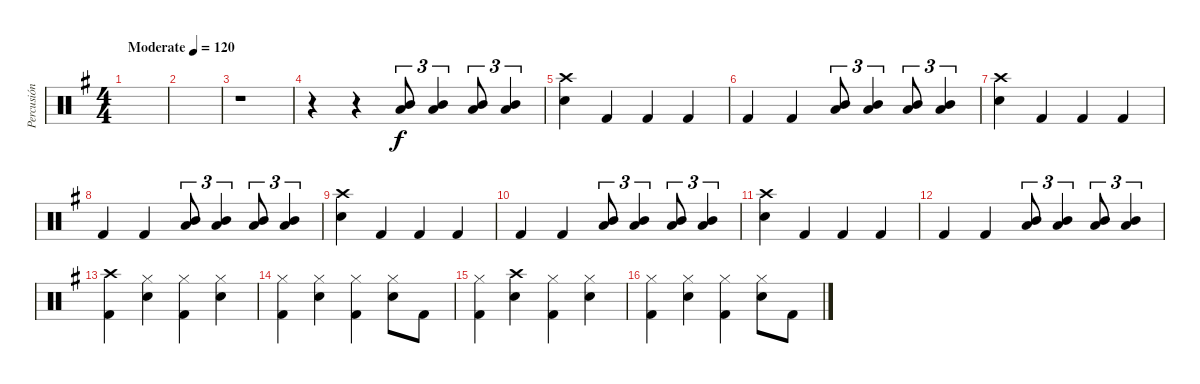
\track ("Percusión" "Percusión") {instrument percussion}
\staff {score}
\articulation defaults
\ts (4 4)
\tempo (120 "Moderate")
\clef neutral
\ks g
|
|
r.1 |
r.4 r.4 ("Low Tom (hit)" "Mid Tom (hit)").8{tu (3 2)} ("Low Tom (hit)" "Mid Tom (hit)").4{tu (3 2)} ("Low Tom (hit)" "Mid Tom (hit)").8{tu (3 2)} ("Low Tom (hit)" "Mid Tom (hit)").4{tu (3 2)} |
("Crash high (hit)" "Snare (hit) 2").4 "Kick (hit) 2".4 "Kick (hit) 2".4 "Kick (hit) 2".4 |
"Kick (hit) 2".4 "Kick (hit) 2".4 ("Low Tom (hit)" "Mid Tom (hit)").8{tu (3 2)} ("Low Tom (hit)" "Mid Tom (hit)").4{tu (3 2)} ("Low Tom (hit)" "Mid Tom (hit)").8{tu (3 2)} ("Low Tom (hit)" "Mid Tom (hit)").4{tu (3 2)} |
("Crash high (hit)" "Snare (hit) 2").4 "Kick (hit) 2".4 "Kick (hit) 2".4 "Kick (hit) 2".4 |
"Kick (hit) 2".4 "Kick (hit) 2".4 ("Low Tom (hit)" "Mid Tom (hit)").8{tu (3 2)} ("Low Tom (hit)" "Mid Tom (hit)").4{tu (3 2)} ("Low Tom (hit)" "Mid Tom (hit)").8{tu (3 2)} ("Low Tom (hit)" "Mid Tom (hit)").4{tu (3 2)} |
("Crash high (hit)" "Snare (hit) 2").4 "Kick (hit) 2".4 "Kick (hit) 2".4 "Kick (hit) 2".4 |
"Kick (hit) 2".4 "Kick (hit) 2".4 ("Low Tom (hit)" "Mid Tom (hit)").8{tu (3 2)} ("Low Tom (hit)" "Mid Tom (hit)").4{tu (3 2)} ("Low Tom (hit)" "Mid Tom (hit)").8{tu (3 2)} ("Low Tom (hit)" "Mid Tom (hit)").4{tu (3 2)} |
("Crash high (hit)" "Snare (hit) 2").4 "Kick (hit) 2".4 "Kick (hit) 2".4 "Kick (hit) 2".4 |
"Kick (hit) 2".4 "Kick (hit) 2".4 ("Low Tom (hit)" "Mid Tom (hit)").8{tu (3 2)} ("Low Tom (hit)" "Mid Tom (hit)").4{tu (3 2)} ("Low Tom (hit)" "Mid Tom (hit)").8{tu (3 2)} ("Low Tom (hit)" "Mid Tom (hit)").4{tu (3 2)} |
("Crash high (hit)" "Kick (hit) 2").4 ("Hi-Hat (closed)" "Snare (hit) 2").4 ("Hi-Hat (closed)" "Kick (hit) 2").4 ("Hi-Hat (closed)" "Snare (hit) 2").4 |
("Hi-Hat (closed)" "Kick (hit) 2").4 ("Hi-Hat (closed)" "Snare (hit) 2").4 ("Hi-Hat (closed)" "Kick (hit) 2").4 ("Hi-Hat (closed)" "Snare (hit) 2").8 "Kick (hit) 2".8 |
("Hi-Hat (closed)" "Kick (hit) 2").4 ("Crash high (hit)" "Snare (hit) 2").4 ("Hi-Hat (closed)" "Kick (hit) 2").4 ("Hi-Hat (closed)" "Snare (hit) 2").4 |
("Hi-Hat (closed)" "Kick (hit) 2").4 ("Hi-Hat (closed)" "Snare (hit) 2").4 ("Hi-Hat (closed)" "Kick (hit) 2").4 ("Hi-Hat (closed)" "Snare (hit) 2").8 "Kick (hit) 2".8
